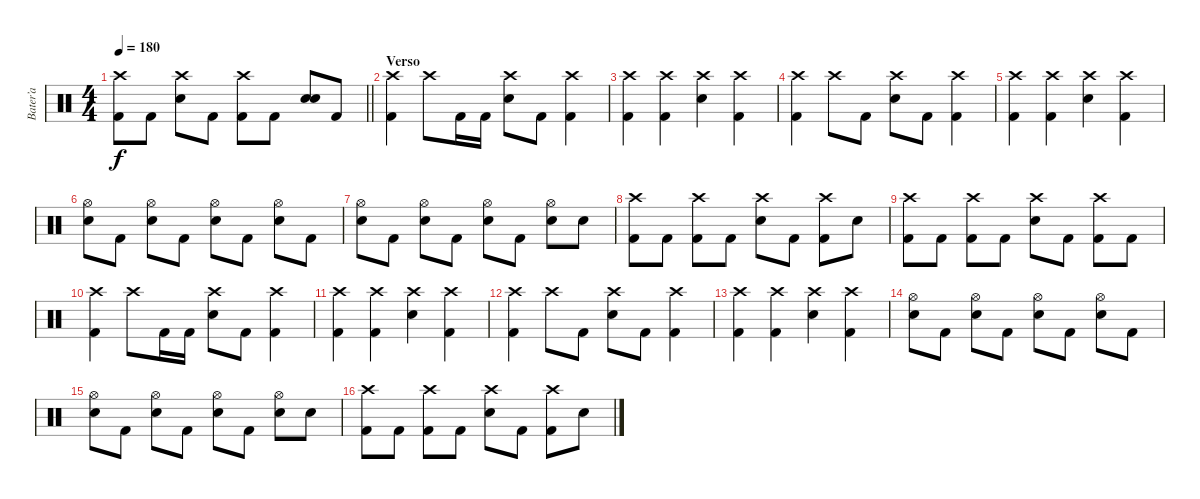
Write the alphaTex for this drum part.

\track ("Bater’a" "Bater’a") {instrument percussion bank 211}
\staff {score}
\articulation defaults
\ts (4 4)
\tempo 180
\clef neutral
\barLineRight lightlight
\ks c
("Crash high (hit)" "Kick (hit) 2").8{dy f} "Kick (hit) 2".8 ("Crash high (hit)" "Electric Snare (hit)").8 "Kick (hit) 2".8 ("Crash high (hit)" "Kick (hit) 2").8 "Kick (hit) 2".8 ("Electric Snare (hit)" "Electric Snare (hit)").8 "Kick (hit) 2".8 |
\section ("" "Verso")
("Crash high (hit)" "Kick (hit) 2").4 "Crash high (hit)".8 "Kick (hit) 2".16 "Kick (hit) 2".16 ("Crash high (hit)" "Electric Snare (hit)").8 "Kick (hit) 2".8 ("Crash high (hit)" "Kick (hit) 2").4 |
("Crash high (hit)" "Kick (hit) 2").4 ("Crash high (hit)" "Kick (hit) 2").4 ("Crash high (hit)" "Electric Snare (hit)").4 ("Crash high (hit)" "Kick (hit) 2").4 |
("Crash high (hit)" "Kick (hit) 2").4 "Crash high (hit)".8 "Kick (hit) 2".8 ("Crash high (hit)" "Electric Snare (hit)").8 "Kick (hit) 2".8 ("Crash high (hit)" "Kick (hit) 2").4 |
("Crash high (hit)" "Kick (hit) 2").4 ("Crash high (hit)" "Kick (hit) 2").4 ("Crash high (hit)" "Electric Snare (hit)").4 ("Crash high (hit)" "Kick (hit) 2").4 |
("Hi-Hat (open)" "Electric Snare (hit)").8 "Kick (hit) 2".8 ("Hi-Hat (open)" "Electric Snare (hit)").8 "Kick (hit) 2".8 ("Hi-Hat (open)" "Electric Snare (hit)").8 "Kick (hit) 2".8 ("Hi-Hat (open)" "Electric Snare (hit)").8 "Kick (hit) 2".8 |
("Hi-Hat (open)" "Electric Snare (hit)").8 "Kick (hit) 2".8 ("Hi-Hat (open)" "Electric Snare (hit)").8 "Kick (hit) 2".8 ("Hi-Hat (open)" "Electric Snare (hit)").8 "Kick (hit) 2".8 ("Hi-Hat (open)" "Electric Snare (hit)").8 "Electric Snare (hit)".8 |
("Crash high (hit)" "Kick (hit) 2").8 "Kick (hit) 2".8 ("Crash high (hit)" "Kick (hit) 2").8 "Kick (hit) 2".8 ("Crash high (hit)" "Electric Snare (hit)").8 "Kick (hit) 2".8 ("Crash high (hit)" "Kick (hit) 2").8 "Electric Snare (hit)".8 |
("Crash high (hit)" "Kick (hit) 2").8 "Kick (hit) 2".8 ("Crash high (hit)" "Kick (hit) 2").8 "Kick (hit) 2".8 ("Crash high (hit)" "Electric Snare (hit)").8 "Kick (hit) 2".8 ("Crash high (hit)" "Kick (hit) 2").8 "Kick (hit) 2".8 |
("Crash high (hit)" "Kick (hit) 2").4 "Crash high (hit)".8 "Kick (hit) 2".16 "Kick (hit) 2".16 ("Crash high (hit)" "Electric Snare (hit)").8 "Kick (hit) 2".8 ("Crash high (hit)" "Kick (hit) 2").4 |
("Crash high (hit)" "Kick (hit) 2").4 ("Crash high (hit)" "Kick (hit) 2").4 ("Crash high (hit)" "Electric Snare (hit)").4 ("Crash high (hit)" "Kick (hit) 2").4 |
("Crash high (hit)" "Kick (hit) 2").4 "Crash high (hit)".8 "Kick (hit) 2".8 ("Crash high (hit)" "Electric Snare (hit)").8 "Kick (hit) 2".8 ("Crash high (hit)" "Kick (hit) 2").4 |
("Crash high (hit)" "Kick (hit) 2").4 ("Crash high (hit)" "Kick (hit) 2").4 ("Crash high (hit)" "Electric Snare (hit)").4 ("Crash high (hit)" "Kick (hit) 2").4 |
("Hi-Hat (open)" "Electric Snare (hit)").8 "Kick (hit) 2".8 ("Hi-Hat (open)" "Electric Snare (hit)").8 "Kick (hit) 2".8 ("Hi-Hat (open)" "Electric Snare (hit)").8 "Kick (hit) 2".8 ("Hi-Hat (open)" "Electric Snare (hit)").8 "Kick (hit) 2".8 |
("Hi-Hat (open)" "Electric Snare (hit)").8 "Kick (hit) 2".8 ("Hi-Hat (open)" "Electric Snare (hit)").8 "Kick (hit) 2".8 ("Hi-Hat (open)" "Electric Snare (hit)").8 "Kick (hit) 2".8 ("Hi-Hat (open)" "Electric Snare (hit)").8 "Electric Snare (hit)".8 |
("Crash high (hit)" "Kick (hit) 2").8 "Kick (hit) 2".8 ("Crash high (hit)" "Kick (hit) 2").8 "Kick (hit) 2".8 ("Crash high (hit)" "Electric Snare (hit)").8 "Kick (hit) 2".8 ("Crash high (hit)" "Kick (hit) 2").8 "Electric Snare (hit)".8
